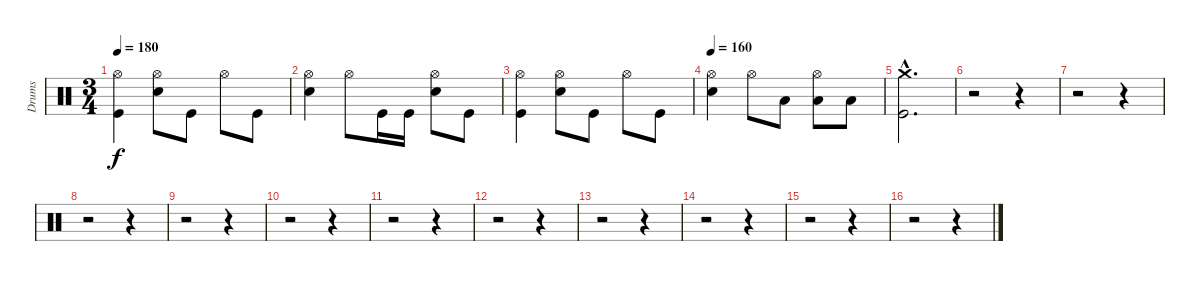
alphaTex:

\track ("Drums" "Drums") {instrument percussion}
\staff {score}
\articulation defaults
\ts (3 4)
\tempo 180
\clef neutral
\ks c
("Hi-Hat (open)" "Kick (hit)").4{dy f} ("Hi-Hat (open)" "Electric Snare (hit)").8 "Kick (hit)".8 "Hi-Hat (open)".8 "Kick (hit)".8 |
("Hi-Hat (open)" "Electric Snare (hit)").4 "Hi-Hat (open)".8 "Kick (hit)".16 "Kick (hit)".16 ("Hi-Hat (open)" "Electric Snare (hit)").8 "Kick (hit)".8 |
("Hi-Hat (open)" "Kick (hit)").4 ("Hi-Hat (open)" "Electric Snare (hit)").8 "Kick (hit)".8 "Hi-Hat (open)".8 "Kick (hit)".8 |
\tempo 160
("Hi-Hat (open)" "Electric Snare (hit)").4 "Hi-Hat (open)".8 "Low Floor Tom (hit)".8 ("Hi-Hat (open)" "Low Floor Tom (hit)").8 "Low Floor Tom (hit)".8 |
("Crash medium (hit)"{hac} "Kick (hit)"{hac}).2{d} |
r.2 r.4 |
r.2 r.4 |
r.2 r.4 |
r.2 r.4 |
r.2 r.4 |
r.2 r.4 |
r.2 r.4 |
r.2 r.4 |
r.2 r.4 |
r.2 r.4 |
r.2 r.4
